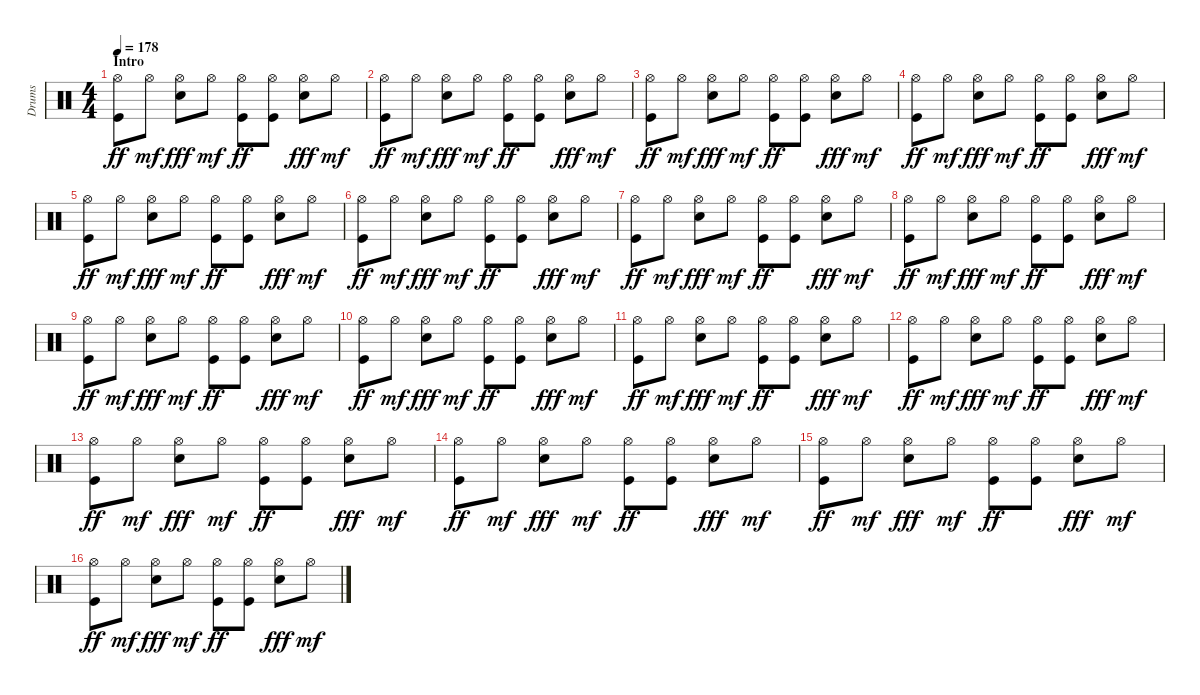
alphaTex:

\track ("Drums" "Drums") {instrument percussion}
\staff {score}
\articulation defaults
\ts (4 4)
\section ("" "Intro")
\tempo 178
\clef neutral
\ks c
("Hi-Hat (open)" "Kick (hit)").8{dy ff} "Hi-Hat (open)".8{dy mf} ("Hi-Hat (open)" "Snare (hit) 2").8{dy fff} "Hi-Hat (open)".8{dy mf} ("Hi-Hat (open)" "Kick (hit)").8{dy ff} ("Hi-Hat (open)" "Kick (hit)").8 ("Hi-Hat (open)" "Snare (hit) 2").8{dy fff} "Hi-Hat (open)".8{dy mf} |
("Hi-Hat (open)" "Kick (hit)").8{dy ff} "Hi-Hat (open)".8{dy mf} ("Hi-Hat (open)" "Snare (hit) 2").8{dy fff} "Hi-Hat (open)".8{dy mf} ("Hi-Hat (open)" "Kick (hit)").8{dy ff} ("Hi-Hat (open)" "Kick (hit)").8 ("Hi-Hat (open)" "Snare (hit) 2").8{dy fff} "Hi-Hat (open)".8{dy mf} |
("Hi-Hat (open)" "Kick (hit)").8{dy ff} "Hi-Hat (open)".8{dy mf} ("Hi-Hat (open)" "Snare (hit) 2").8{dy fff} "Hi-Hat (open)".8{dy mf} ("Hi-Hat (open)" "Kick (hit)").8{dy ff} ("Hi-Hat (open)" "Kick (hit)").8 ("Hi-Hat (open)" "Snare (hit) 2").8{dy fff} "Hi-Hat (open)".8{dy mf} |
("Hi-Hat (open)" "Kick (hit)").8{dy ff} "Hi-Hat (open)".8{dy mf} ("Hi-Hat (open)" "Snare (hit) 2").8{dy fff} "Hi-Hat (open)".8{dy mf} ("Hi-Hat (open)" "Kick (hit)").8{dy ff} ("Hi-Hat (open)" "Kick (hit)").8 ("Hi-Hat (open)" "Snare (hit) 2").8{dy fff} "Hi-Hat (open)".8{dy mf} |
("Hi-Hat (open)" "Kick (hit)").8{dy ff} "Hi-Hat (open)".8{dy mf} ("Hi-Hat (open)" "Snare (hit) 2").8{dy fff} "Hi-Hat (open)".8{dy mf} ("Hi-Hat (open)" "Kick (hit)").8{dy ff} ("Hi-Hat (open)" "Kick (hit)").8 ("Hi-Hat (open)" "Snare (hit) 2").8{dy fff} "Hi-Hat (open)".8{dy mf} |
("Hi-Hat (open)" "Kick (hit)").8{dy ff} "Hi-Hat (open)".8{dy mf} ("Hi-Hat (open)" "Snare (hit) 2").8{dy fff} "Hi-Hat (open)".8{dy mf} ("Hi-Hat (open)" "Kick (hit)").8{dy ff} ("Hi-Hat (open)" "Kick (hit)").8 ("Hi-Hat (open)" "Snare (hit) 2").8{dy fff} "Hi-Hat (open)".8{dy mf} |
("Hi-Hat (open)" "Kick (hit)").8{dy ff} "Hi-Hat (open)".8{dy mf} ("Hi-Hat (open)" "Snare (hit) 2").8{dy fff} "Hi-Hat (open)".8{dy mf} ("Hi-Hat (open)" "Kick (hit)").8{dy ff} ("Hi-Hat (open)" "Kick (hit)").8 ("Hi-Hat (open)" "Snare (hit) 2").8{dy fff} "Hi-Hat (open)".8{dy mf} |
("Hi-Hat (open)" "Kick (hit)").8{dy ff} "Hi-Hat (open)".8{dy mf} ("Hi-Hat (open)" "Snare (hit) 2").8{dy fff} "Hi-Hat (open)".8{dy mf} ("Hi-Hat (open)" "Kick (hit)").8{dy ff} ("Hi-Hat (open)" "Kick (hit)").8 ("Hi-Hat (open)" "Snare (hit) 2").8{dy fff} "Hi-Hat (open)".8{dy mf} |
("Hi-Hat (open)" "Kick (hit)").8{dy ff} "Hi-Hat (open)".8{dy mf} ("Hi-Hat (open)" "Snare (hit) 2").8{dy fff} "Hi-Hat (open)".8{dy mf} ("Hi-Hat (open)" "Kick (hit)").8{dy ff} ("Hi-Hat (open)" "Kick (hit)").8 ("Hi-Hat (open)" "Snare (hit) 2").8{dy fff} "Hi-Hat (open)".8{dy mf} |
("Hi-Hat (open)" "Kick (hit)").8{dy ff} "Hi-Hat (open)".8{dy mf} ("Hi-Hat (open)" "Snare (hit) 2").8{dy fff} "Hi-Hat (open)".8{dy mf} ("Hi-Hat (open)" "Kick (hit)").8{dy ff} ("Hi-Hat (open)" "Kick (hit)").8 ("Hi-Hat (open)" "Snare (hit) 2").8{dy fff} "Hi-Hat (open)".8{dy mf} |
("Hi-Hat (open)" "Kick (hit)").8{dy ff} "Hi-Hat (open)".8{dy mf} ("Hi-Hat (open)" "Snare (hit) 2").8{dy fff} "Hi-Hat (open)".8{dy mf} ("Hi-Hat (open)" "Kick (hit)").8{dy ff} ("Hi-Hat (open)" "Kick (hit)").8 ("Hi-Hat (open)" "Snare (hit) 2").8{dy fff} "Hi-Hat (open)".8{dy mf} |
("Hi-Hat (open)" "Kick (hit)").8{dy ff} "Hi-Hat (open)".8{dy mf} ("Hi-Hat (open)" "Snare (hit) 2").8{dy fff} "Hi-Hat (open)".8{dy mf} ("Hi-Hat (open)" "Kick (hit)").8{dy ff} ("Hi-Hat (open)" "Kick (hit)").8 ("Hi-Hat (open)" "Snare (hit) 2").8{dy fff} "Hi-Hat (open)".8{dy mf} |
("Hi-Hat (open)" "Kick (hit)").8{dy ff} "Hi-Hat (open)".8{dy mf} ("Hi-Hat (open)" "Snare (hit) 2").8{dy fff} "Hi-Hat (open)".8{dy mf} ("Hi-Hat (open)" "Kick (hit)").8{dy ff} ("Hi-Hat (open)" "Kick (hit)").8 ("Hi-Hat (open)" "Snare (hit) 2").8{dy fff} "Hi-Hat (open)".8{dy mf} |
("Hi-Hat (open)" "Kick (hit)").8{dy ff} "Hi-Hat (open)".8{dy mf} ("Hi-Hat (open)" "Snare (hit) 2").8{dy fff} "Hi-Hat (open)".8{dy mf} ("Hi-Hat (open)" "Kick (hit)").8{dy ff} ("Hi-Hat (open)" "Kick (hit)").8 ("Hi-Hat (open)" "Snare (hit) 2").8{dy fff} "Hi-Hat (open)".8{dy mf} |
("Hi-Hat (open)" "Kick (hit)").8{dy ff} "Hi-Hat (open)".8{dy mf} ("Hi-Hat (open)" "Snare (hit) 2").8{dy fff} "Hi-Hat (open)".8{dy mf} ("Hi-Hat (open)" "Kick (hit)").8{dy ff} ("Hi-Hat (open)" "Kick (hit)").8 ("Hi-Hat (open)" "Snare (hit) 2").8{dy fff} "Hi-Hat (open)".8{dy mf} |
("Hi-Hat (open)" "Kick (hit)").8{dy ff} "Hi-Hat (open)".8{dy mf} ("Hi-Hat (open)" "Snare (hit) 2").8{dy fff} "Hi-Hat (open)".8{dy mf} ("Hi-Hat (open)" "Kick (hit)").8{dy ff} ("Hi-Hat (open)" "Kick (hit)").8 ("Hi-Hat (open)" "Snare (hit) 2").8{dy fff} "Hi-Hat (open)".8{dy mf}
